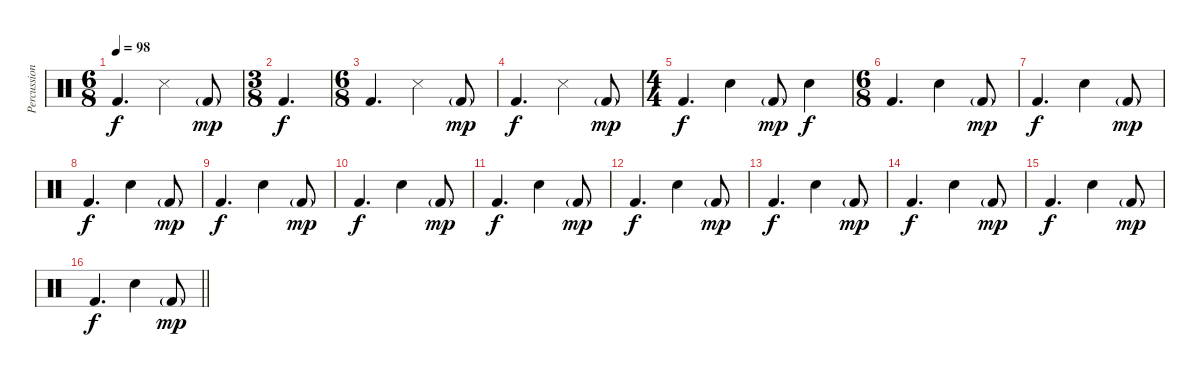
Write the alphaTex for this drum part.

\track ("Percussion" "Percussion") {instrument percussion}
\staff {score}
\articulation defaults
\ts (6 8)
\tempo 98
\clef neutral
\ks c "Kick (hit) 2".4{d dy f} "Snare (side stick) 3".4 "Kick (hit) 2"{g}.8{dy mp}
|
\ts (3 8)
"Kick (hit) 2".4{d dy f} |
\ts (6 8)
"Kick (hit) 2".4{d} "Snare (side stick) 3".4 "Kick (hit) 2"{g}.8{dy mp} |
"Kick (hit) 2".4{d dy f} "Snare (side stick) 3".4 "Kick (hit) 2"{g}.8{dy mp} |
\ts (4 4)
"Kick (hit) 2".4{d dy f} "Snare (hit) 2".4 "Kick (hit) 2"{g}.8{dy mp} "Snare (hit) 2".4{dy f} |
\ts (6 8)
"Kick (hit) 2".4{d} "Snare (hit) 2".4 "Kick (hit) 2"{g}.8{dy mp} |
"Kick (hit) 2".4{d dy f} "Snare (hit) 2".4 "Kick (hit) 2"{g}.8{dy mp} |
"Kick (hit) 2".4{d dy f} "Snare (hit) 2".4 "Kick (hit) 2"{g}.8{dy mp} |
"Kick (hit) 2".4{d dy f} "Snare (hit) 2".4 "Kick (hit) 2"{g}.8{dy mp} |
"Kick (hit) 2".4{d dy f} "Snare (hit) 2".4 "Kick (hit) 2"{g}.8{dy mp} |
"Kick (hit) 2".4{d dy f} "Snare (hit) 2".4 "Kick (hit) 2"{g}.8{dy mp} |
"Kick (hit) 2".4{d dy f} "Snare (hit) 2".4 "Kick (hit) 2"{g}.8{dy mp} |
"Kick (hit) 2".4{d dy f} "Snare (hit) 2".4 "Kick (hit) 2"{g}.8{dy mp} |
"Kick (hit) 2".4{d dy f} "Snare (hit) 2".4 "Kick (hit) 2"{g}.8{dy mp} |
"Kick (hit) 2".4{d dy f} "Snare (hit) 2".4 "Kick (hit) 2"{g}.8{dy mp} |
\barLineRight lightlight "Kick (hit) 2".4{d dy f} "Snare (hit) 2".4 "Kick (hit) 2"{g}.8{dy mp}
